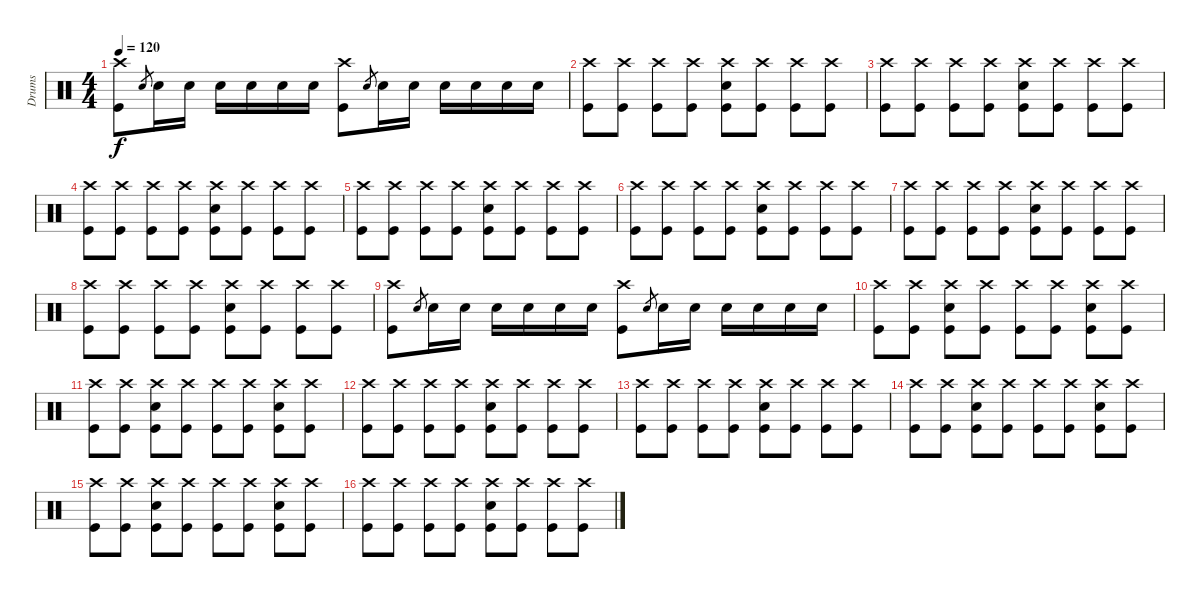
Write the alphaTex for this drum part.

\track ("Drums" "Drums") {instrument percussion}
\staff {score}
\articulation defaults
\ts (4 4)
\tempo 120
\clef neutral
\ks c
("Crash high (hit)" "Kick (hit)").8{dy f} "Electric Snare (hit)".8{gr} "Electric Snare (hit)".16 "Electric Snare (hit)".16 "Electric Snare (hit)".16 "Electric Snare (hit)".16 "Electric Snare (hit)".16 "Electric Snare (hit)".16 ("Crash high (hit)" "Kick (hit)").8 "Electric Snare (hit)".8{gr} "Electric Snare (hit)".16 "Electric Snare (hit)".16 "Electric Snare (hit)".16 "Electric Snare (hit)".16 "Electric Snare (hit)".16 "Electric Snare (hit)".16 |
("Crash high (hit)" "Kick (hit)").8 ("Crash high (hit)" "Kick (hit)").8 ("Crash high (hit)" "Kick (hit)").8 ("Crash high (hit)" "Kick (hit)").8 ("Crash high (hit)" "Electric Snare (hit)" "Kick (hit)").8 ("Crash high (hit)" "Kick (hit)").8 ("Crash high (hit)" "Kick (hit)").8 ("Crash high (hit)" "Kick (hit)").8 |
("Crash high (hit)" "Kick (hit)").8 ("Crash high (hit)" "Kick (hit)").8 ("Crash high (hit)" "Kick (hit)").8 ("Crash high (hit)" "Kick (hit)").8 ("Crash high (hit)" "Electric Snare (hit)" "Kick (hit)").8 ("Crash high (hit)" "Kick (hit)").8 ("Crash high (hit)" "Kick (hit)").8 ("Crash high (hit)" "Kick (hit)").8 |
("Crash high (hit)" "Kick (hit)").8 ("Crash high (hit)" "Kick (hit)").8 ("Crash high (hit)" "Kick (hit)").8 ("Crash high (hit)" "Kick (hit)").8 ("Crash high (hit)" "Electric Snare (hit)" "Kick (hit)").8 ("Crash high (hit)" "Kick (hit)").8 ("Crash high (hit)" "Kick (hit)").8 ("Crash high (hit)" "Kick (hit)").8 |
("Crash high (hit)" "Kick (hit)").8 ("Crash high (hit)" "Kick (hit)").8 ("Crash high (hit)" "Kick (hit)").8 ("Crash high (hit)" "Kick (hit)").8 ("Crash high (hit)" "Electric Snare (hit)" "Kick (hit)").8 ("Crash high (hit)" "Kick (hit)").8 ("Crash high (hit)" "Kick (hit)").8 ("Crash high (hit)" "Kick (hit)").8 |
("Crash high (hit)" "Kick (hit)").8 ("Crash high (hit)" "Kick (hit)").8 ("Crash high (hit)" "Kick (hit)").8 ("Crash high (hit)" "Kick (hit)").8 ("Crash high (hit)" "Electric Snare (hit)" "Kick (hit)").8 ("Crash high (hit)" "Kick (hit)").8 ("Crash high (hit)" "Kick (hit)").8 ("Crash high (hit)" "Kick (hit)").8 |
("Crash high (hit)" "Kick (hit)").8 ("Crash high (hit)" "Kick (hit)").8 ("Crash high (hit)" "Kick (hit)").8 ("Crash high (hit)" "Kick (hit)").8 ("Crash high (hit)" "Electric Snare (hit)" "Kick (hit)").8 ("Crash high (hit)" "Kick (hit)").8 ("Crash high (hit)" "Kick (hit)").8 ("Crash high (hit)" "Kick (hit)").8 |
("Crash high (hit)" "Kick (hit)").8 ("Crash high (hit)" "Kick (hit)").8 ("Crash high (hit)" "Kick (hit)").8 ("Crash high (hit)" "Kick (hit)").8 ("Crash high (hit)" "Electric Snare (hit)" "Kick (hit)").8 ("Crash high (hit)" "Kick (hit)").8 ("Crash high (hit)" "Kick (hit)").8 ("Crash high (hit)" "Kick (hit)").8 |
("Crash high (hit)" "Kick (hit)").8 "Electric Snare (hit)".8{gr} "Electric Snare (hit)".16 "Electric Snare (hit)".16 "Electric Snare (hit)".16 "Electric Snare (hit)".16 "Electric Snare (hit)".16 "Electric Snare (hit)".16 ("Crash high (hit)" "Kick (hit)").8 "Electric Snare (hit)".8{gr} "Electric Snare (hit)".16 "Electric Snare (hit)".16 "Electric Snare (hit)".16 "Electric Snare (hit)".16 "Electric Snare (hit)".16 "Electric Snare (hit)".16 |
("Crash high (hit)" "Kick (hit)").8 ("Crash high (hit)" "Kick (hit)").8 ("Crash high (hit)" "Electric Snare (hit)" "Kick (hit)").8 ("Crash high (hit)" "Kick (hit)").8 ("Crash high (hit)" "Kick (hit)").8 ("Crash high (hit)" "Kick (hit)").8 ("Crash high (hit)" "Electric Snare (hit)" "Kick (hit)").8 ("Crash high (hit)" "Kick (hit)").8 |
("Crash high (hit)" "Kick (hit)").8 ("Crash high (hit)" "Kick (hit)").8 ("Crash high (hit)" "Electric Snare (hit)" "Kick (hit)").8 ("Crash high (hit)" "Kick (hit)").8 ("Crash high (hit)" "Kick (hit)").8 ("Crash high (hit)" "Kick (hit)").8 ("Crash high (hit)" "Electric Snare (hit)" "Kick (hit)").8 ("Crash high (hit)" "Kick (hit)").8 |
("Crash high (hit)" "Kick (hit)").8 ("Crash high (hit)" "Kick (hit)").8 ("Crash high (hit)" "Kick (hit)").8 ("Crash high (hit)" "Kick (hit)").8 ("Crash high (hit)" "Electric Snare (hit)" "Kick (hit)").8 ("Crash high (hit)" "Kick (hit)").8 ("Crash high (hit)" "Kick (hit)").8 ("Crash high (hit)" "Kick (hit)").8 |
("Crash high (hit)" "Kick (hit)").8 ("Crash high (hit)" "Kick (hit)").8 ("Crash high (hit)" "Kick (hit)").8 ("Crash high (hit)" "Kick (hit)").8 ("Crash high (hit)" "Electric Snare (hit)" "Kick (hit)").8 ("Crash high (hit)" "Kick (hit)").8 ("Crash high (hit)" "Kick (hit)").8 ("Crash high (hit)" "Kick (hit)").8 |
("Crash high (hit)" "Kick (hit)").8 ("Crash high (hit)" "Kick (hit)").8 ("Crash high (hit)" "Electric Snare (hit)" "Kick (hit)").8 ("Crash high (hit)" "Kick (hit)").8 ("Crash high (hit)" "Kick (hit)").8 ("Crash high (hit)" "Kick (hit)").8 ("Crash high (hit)" "Electric Snare (hit)" "Kick (hit)").8 ("Crash high (hit)" "Kick (hit)").8 |
("Crash high (hit)" "Kick (hit)").8 ("Crash high (hit)" "Kick (hit)").8 ("Crash high (hit)" "Electric Snare (hit)" "Kick (hit)").8 ("Crash high (hit)" "Kick (hit)").8 ("Crash high (hit)" "Kick (hit)").8 ("Crash high (hit)" "Kick (hit)").8 ("Crash high (hit)" "Electric Snare (hit)" "Kick (hit)").8 ("Crash high (hit)" "Kick (hit)").8 |
("Crash high (hit)" "Kick (hit)").8 ("Crash high (hit)" "Kick (hit)").8 ("Crash high (hit)" "Kick (hit)").8 ("Crash high (hit)" "Kick (hit)").8 ("Crash high (hit)" "Electric Snare (hit)" "Kick (hit)").8 ("Crash high (hit)" "Kick (hit)").8 ("Crash high (hit)" "Kick (hit)").8 ("Crash high (hit)" "Kick (hit)").8
